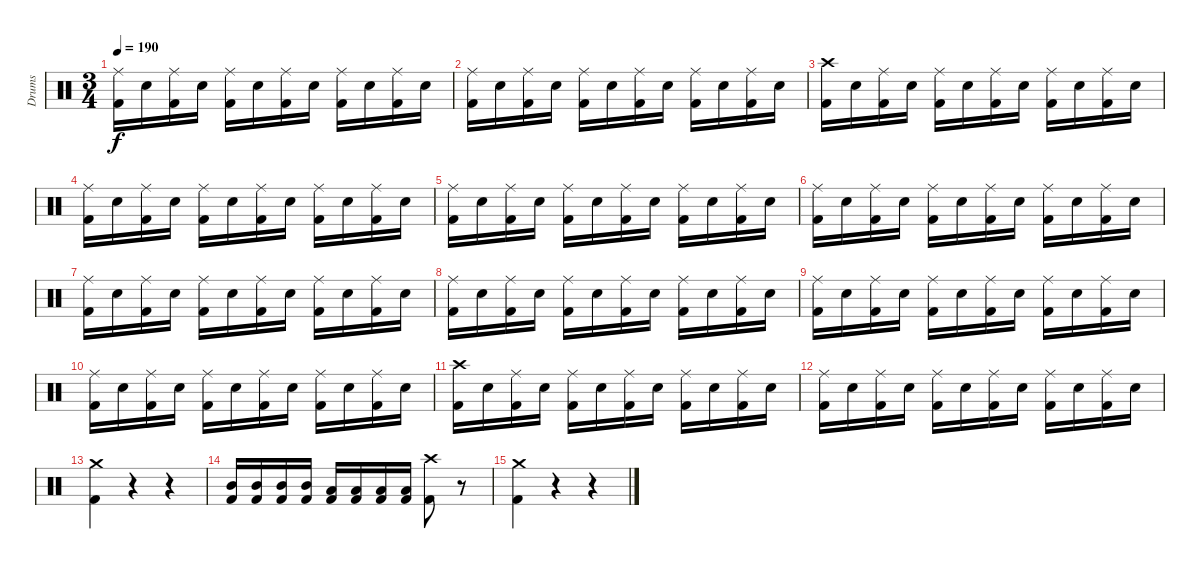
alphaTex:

\track ("Drums" "Drums") {instrument percussion}
\staff {score}
\articulation defaults
\ts (3 4)
\tempo 190
\clef neutral
\ks c
("Ride (middle)" "Kick (hit) 2").16{dy f} "Snare (hit) 2".16 ("Ride (middle)" "Kick (hit) 2").16 "Snare (hit) 2".16 ("Ride (middle)" "Kick (hit) 2").16 "Snare (hit) 2".16 ("Ride (middle)" "Kick (hit) 2").16 "Snare (hit) 2".16 ("Ride (middle)" "Kick (hit) 2").16 "Snare (hit) 2".16 ("Ride (middle)" "Kick (hit) 2").16 "Snare (hit) 2".16 |
("Ride (middle)" "Kick (hit) 2").16 "Snare (hit) 2".16 ("Ride (middle)" "Kick (hit) 2").16 "Snare (hit) 2".16 ("Ride (middle)" "Kick (hit) 2").16 "Snare (hit) 2".16 ("Ride (middle)" "Kick (hit) 2").16 "Snare (hit) 2".16 ("Ride (middle)" "Kick (hit) 2").16 "Snare (hit) 2".16 ("Ride (middle)" "Kick (hit) 2").16 "Snare (hit) 2".16 |
("Crash high (hit)" "Kick (hit) 2").16 "Snare (hit) 2".16 ("Ride (middle)" "Kick (hit) 2").16 "Snare (hit) 2".16 ("Ride (middle)" "Kick (hit) 2").16 "Snare (hit) 2".16 ("Ride (middle)" "Kick (hit) 2").16 "Snare (hit) 2".16 ("Ride (middle)" "Kick (hit) 2").16 "Snare (hit) 2".16 ("Ride (middle)" "Kick (hit) 2").16 "Snare (hit) 2".16 |
("Ride (middle)" "Kick (hit) 2").16 "Snare (hit) 2".16 ("Ride (middle)" "Kick (hit) 2").16 "Snare (hit) 2".16 ("Ride (middle)" "Kick (hit) 2").16 "Snare (hit) 2".16 ("Ride (middle)" "Kick (hit) 2").16 "Snare (hit) 2".16 ("Ride (middle)" "Kick (hit) 2").16 "Snare (hit) 2".16 ("Ride (middle)" "Kick (hit) 2").16 "Snare (hit) 2".16 |
("Ride (middle)" "Kick (hit) 2").16 "Snare (hit) 2".16 ("Ride (middle)" "Kick (hit) 2").16 "Snare (hit) 2".16 ("Ride (middle)" "Kick (hit) 2").16 "Snare (hit) 2".16 ("Ride (middle)" "Kick (hit) 2").16 "Snare (hit) 2".16 ("Ride (middle)" "Kick (hit) 2").16 "Snare (hit) 2".16 ("Ride (middle)" "Kick (hit) 2").16 "Snare (hit) 2".16 |
("Ride (middle)" "Kick (hit) 2").16 "Snare (hit) 2".16 ("Ride (middle)" "Kick (hit) 2").16 "Snare (hit) 2".16 ("Ride (middle)" "Kick (hit) 2").16 "Snare (hit) 2".16 ("Ride (middle)" "Kick (hit) 2").16 "Snare (hit) 2".16 ("Ride (middle)" "Kick (hit) 2").16 "Snare (hit) 2".16 ("Ride (middle)" "Kick (hit) 2").16 "Snare (hit) 2".16 |
("Ride (middle)" "Kick (hit) 2").16 "Snare (hit) 2".16 ("Ride (middle)" "Kick (hit) 2").16 "Snare (hit) 2".16 ("Ride (middle)" "Kick (hit) 2").16 "Snare (hit) 2".16 ("Ride (middle)" "Kick (hit) 2").16 "Snare (hit) 2".16 ("Ride (middle)" "Kick (hit) 2").16 "Snare (hit) 2".16 ("Ride (middle)" "Kick (hit) 2").16 "Snare (hit) 2".16 |
("Ride (middle)" "Kick (hit) 2").16 "Snare (hit) 2".16 ("Ride (middle)" "Kick (hit) 2").16 "Snare (hit) 2".16 ("Ride (middle)" "Kick (hit) 2").16 "Snare (hit) 2".16 ("Ride (middle)" "Kick (hit) 2").16 "Snare (hit) 2".16 ("Ride (middle)" "Kick (hit) 2").16 "Snare (hit) 2".16 ("Ride (middle)" "Kick (hit) 2").16 "Snare (hit) 2".16 |
("Ride (middle)" "Kick (hit) 2").16 "Snare (hit) 2".16 ("Ride (middle)" "Kick (hit) 2").16 "Snare (hit) 2".16 ("Ride (middle)" "Kick (hit) 2").16 "Snare (hit) 2".16 ("Ride (middle)" "Kick (hit) 2").16 "Snare (hit) 2".16 ("Ride (middle)" "Kick (hit) 2").16 "Snare (hit) 2".16 ("Ride (middle)" "Kick (hit) 2").16 "Snare (hit) 2".16 |
("Ride (middle)" "Kick (hit) 2").16 "Snare (hit) 2".16 ("Ride (middle)" "Kick (hit) 2").16 "Snare (hit) 2".16 ("Ride (middle)" "Kick (hit) 2").16 "Snare (hit) 2".16 ("Ride (middle)" "Kick (hit) 2").16 "Snare (hit) 2".16 ("Ride (middle)" "Kick (hit) 2").16 "Snare (hit) 2".16 ("Ride (middle)" "Kick (hit) 2").16 "Snare (hit) 2".16 |
("Crash high (hit)" "Kick (hit) 2").16 "Snare (hit) 2".16 ("Ride (middle)" "Kick (hit) 2").16 "Snare (hit) 2".16 ("Ride (middle)" "Kick (hit) 2").16 "Snare (hit) 2".16 ("Ride (middle)" "Kick (hit) 2").16 "Snare (hit) 2".16 ("Ride (middle)" "Kick (hit) 2").16 "Snare (hit) 2".16 ("Ride (middle)" "Kick (hit) 2").16 "Snare (hit) 2".16 |
("Ride (middle)" "Kick (hit) 2").16 "Snare (hit) 2".16 ("Ride (middle)" "Kick (hit) 2").16 "Snare (hit) 2".16 ("Ride (middle)" "Kick (hit) 2").16 "Snare (hit) 2".16 ("Ride (middle)" "Kick (hit) 2").16 "Snare (hit) 2".16 ("Ride (middle)" "Kick (hit) 2").16 "Snare (hit) 2".16 ("Ride (middle)" "Kick (hit) 2").16 "Snare (hit) 2".16 |
("Crash medium (hit)" "Kick (hit) 2").4 r.4 r.4 |
("Mid Tom (hit)" "Kick (hit) 2").16 ("Mid Tom (hit)" "Kick (hit) 2").16 ("Mid Tom (hit)" "Kick (hit) 2").16 ("Mid Tom (hit)" "Kick (hit) 2").16 ("Low Tom (hit)" "Kick (hit) 2").16 ("Low Tom (hit)" "Kick (hit) 2").16 ("Low Tom (hit)" "Kick (hit) 2").16 ("Low Tom (hit)" "Kick (hit) 2").16 ("Crash high (hit)" "Kick (hit) 2").8 r.8 |
("Crash medium (hit)" "Kick (hit) 2").4 r.4 r.4
